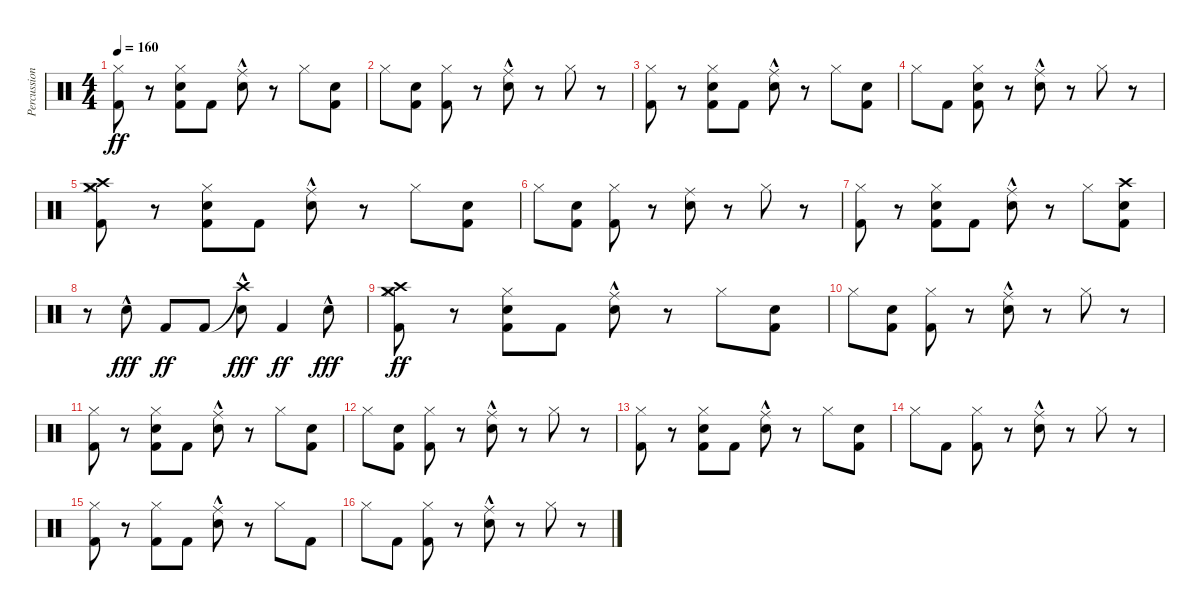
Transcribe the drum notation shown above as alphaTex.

\track ("Percussion" "Percussion") {instrument percussion}
\staff {score}
\articulation defaults
\ts (4 4)
\tempo 160
\clef neutral
\ks c
("Hi-Hat (closed)" "Kick (hit) 2").8{dy ff} r.8 ("Hi-Hat (closed)" "Kick (hit) 2" "Electric Snare (hit)").8 "Kick (hit) 2".8 ("Ride (middle)" "Electric Snare (hit)"{hac}).8 r.8 "Hi-Hat (closed)".8 ("Kick (hit) 2" "Electric Snare (hit)").8 |
"Hi-Hat (closed)".8 ("Kick (hit) 2" "Electric Snare (hit)").8 ("Hi-Hat (closed)" "Kick (hit) 2").8 r.8 ("Ride (middle)" "Electric Snare (hit)"{hac}).8 r.8 "Hi-Hat (closed)".8 r.8 |
("Hi-Hat (closed)" "Kick (hit) 2").8 r.8 ("Hi-Hat (closed)" "Kick (hit) 2" "Electric Snare (hit)").8 "Kick (hit) 2".8 ("Ride (middle)" "Electric Snare (hit)"{hac}).8 r.8 "Hi-Hat (closed)".8 ("Kick (hit) 2" "Electric Snare (hit)").8 |
"Hi-Hat (closed)".8 "Kick (hit) 2".8 ("Hi-Hat (closed)" "Kick (hit) 2" "Electric Snare (hit)").8 r.8 ("Ride (middle)" "Electric Snare (hit)"{hac}).8 r.8 "Hi-Hat (closed)".8 r.8 |
("Hi-Hat (closed)" "Kick (hit) 2" "Crash high (hit)" "Crash medium (hit)").8 r.8 ("Hi-Hat (closed)" "Kick (hit) 2" "Electric Snare (hit)").8 "Kick (hit) 2".8 ("Ride (middle)"{hac} "Electric Snare (hit)"{hac}).8 r.8 "Hi-Hat (closed)".8 ("Kick (hit) 2" "Electric Snare (hit)").8 |
"Hi-Hat (closed)".8 ("Kick (hit) 2" "Electric Snare (hit)").8 ("Hi-Hat (closed)" "Kick (hit) 2").8 r.8 ("Ride (middle)" "Electric Snare (hit)").8 r.8 "Hi-Hat (closed)".8 r.8 |
("Hi-Hat (closed)" "Kick (hit) 2").8 r.8 ("Hi-Hat (closed)" "Kick (hit) 2" "Electric Snare (hit)").8 "Kick (hit) 2".8 ("Ride (middle)"{hac} "Electric Snare (hit)"{hac}).8 r.8 "Hi-Hat (closed)".8 ("Crash high (hit)" "Kick (hit) 2" "Electric Snare (hit)").8 |
r.8 "Electric Snare (hit)"{hac}.8{dy fff} "Kick (hit) 2".8{dy ff} "Kick (hit) 2".8 ("Crash high (hit)"{t} "Electric Snare (hit)"{hac}).8{dy fff} "Kick (hit) 2".4{dy ff} "Electric Snare (hit)"{hac}.8{dy fff} |
("Hi-Hat (closed)" "Kick (hit) 2" "Crash high (hit)" "Crash medium (hit)").8{dy ff} r.8 ("Hi-Hat (closed)" "Kick (hit) 2" "Electric Snare (hit)").8 "Kick (hit) 2".8 ("Ride (middle)"{hac} "Electric Snare (hit)"{hac}).8 r.8 "Hi-Hat (closed)".8 ("Kick (hit) 2" "Electric Snare (hit)").8 |
"Hi-Hat (closed)".8 ("Kick (hit) 2" "Electric Snare (hit)").8 ("Hi-Hat (closed)" "Kick (hit) 2").8 r.8 ("Ride (middle)"{hac} "Electric Snare (hit)").8 r.8 "Hi-Hat (closed)".8 r.8 |
("Hi-Hat (closed)" "Kick (hit) 2").8 r.8 ("Hi-Hat (closed)" "Kick (hit) 2" "Electric Snare (hit)").8 "Kick (hit) 2".8 ("Ride (middle)" "Electric Snare (hit)"{hac}).8 r.8 "Hi-Hat (closed)".8 ("Kick (hit) 2" "Electric Snare (hit)").8 |
"Hi-Hat (closed)".8 ("Kick (hit) 2" "Electric Snare (hit)").8 ("Hi-Hat (closed)" "Kick (hit) 2").8 r.8 ("Ride (middle)" "Electric Snare (hit)"{hac}).8 r.8 "Hi-Hat (closed)".8 r.8 |
("Hi-Hat (closed)" "Kick (hit) 2").8 r.8 ("Hi-Hat (closed)" "Kick (hit) 2" "Electric Snare (hit)").8 "Kick (hit) 2".8 ("Ride (middle)" "Electric Snare (hit)"{hac}).8 r.8 "Hi-Hat (closed)".8 ("Kick (hit) 2" "Electric Snare (hit)").8 |
"Hi-Hat (closed)".8 "Kick (hit) 2".8 ("Hi-Hat (closed)" "Kick (hit) 2").8 r.8 ("Ride (middle)" "Electric Snare (hit)"{hac}).8 r.8 "Hi-Hat (closed)".8 r.8 |
("Hi-Hat (closed)" "Kick (hit) 2").8 r.8 ("Hi-Hat (closed)" "Kick (hit) 2").8 "Kick (hit) 2".8 ("Ride (middle)" "Electric Snare (hit)"{hac}).8 r.8 "Hi-Hat (closed)".8 "Kick (hit) 2".8 |
"Hi-Hat (closed)".8 "Kick (hit) 2".8 ("Hi-Hat (closed)" "Kick (hit) 2").8 r.8 ("Ride (middle)" "Electric Snare (hit)"{hac}).8 r.8 "Hi-Hat (closed)".8 r.8
